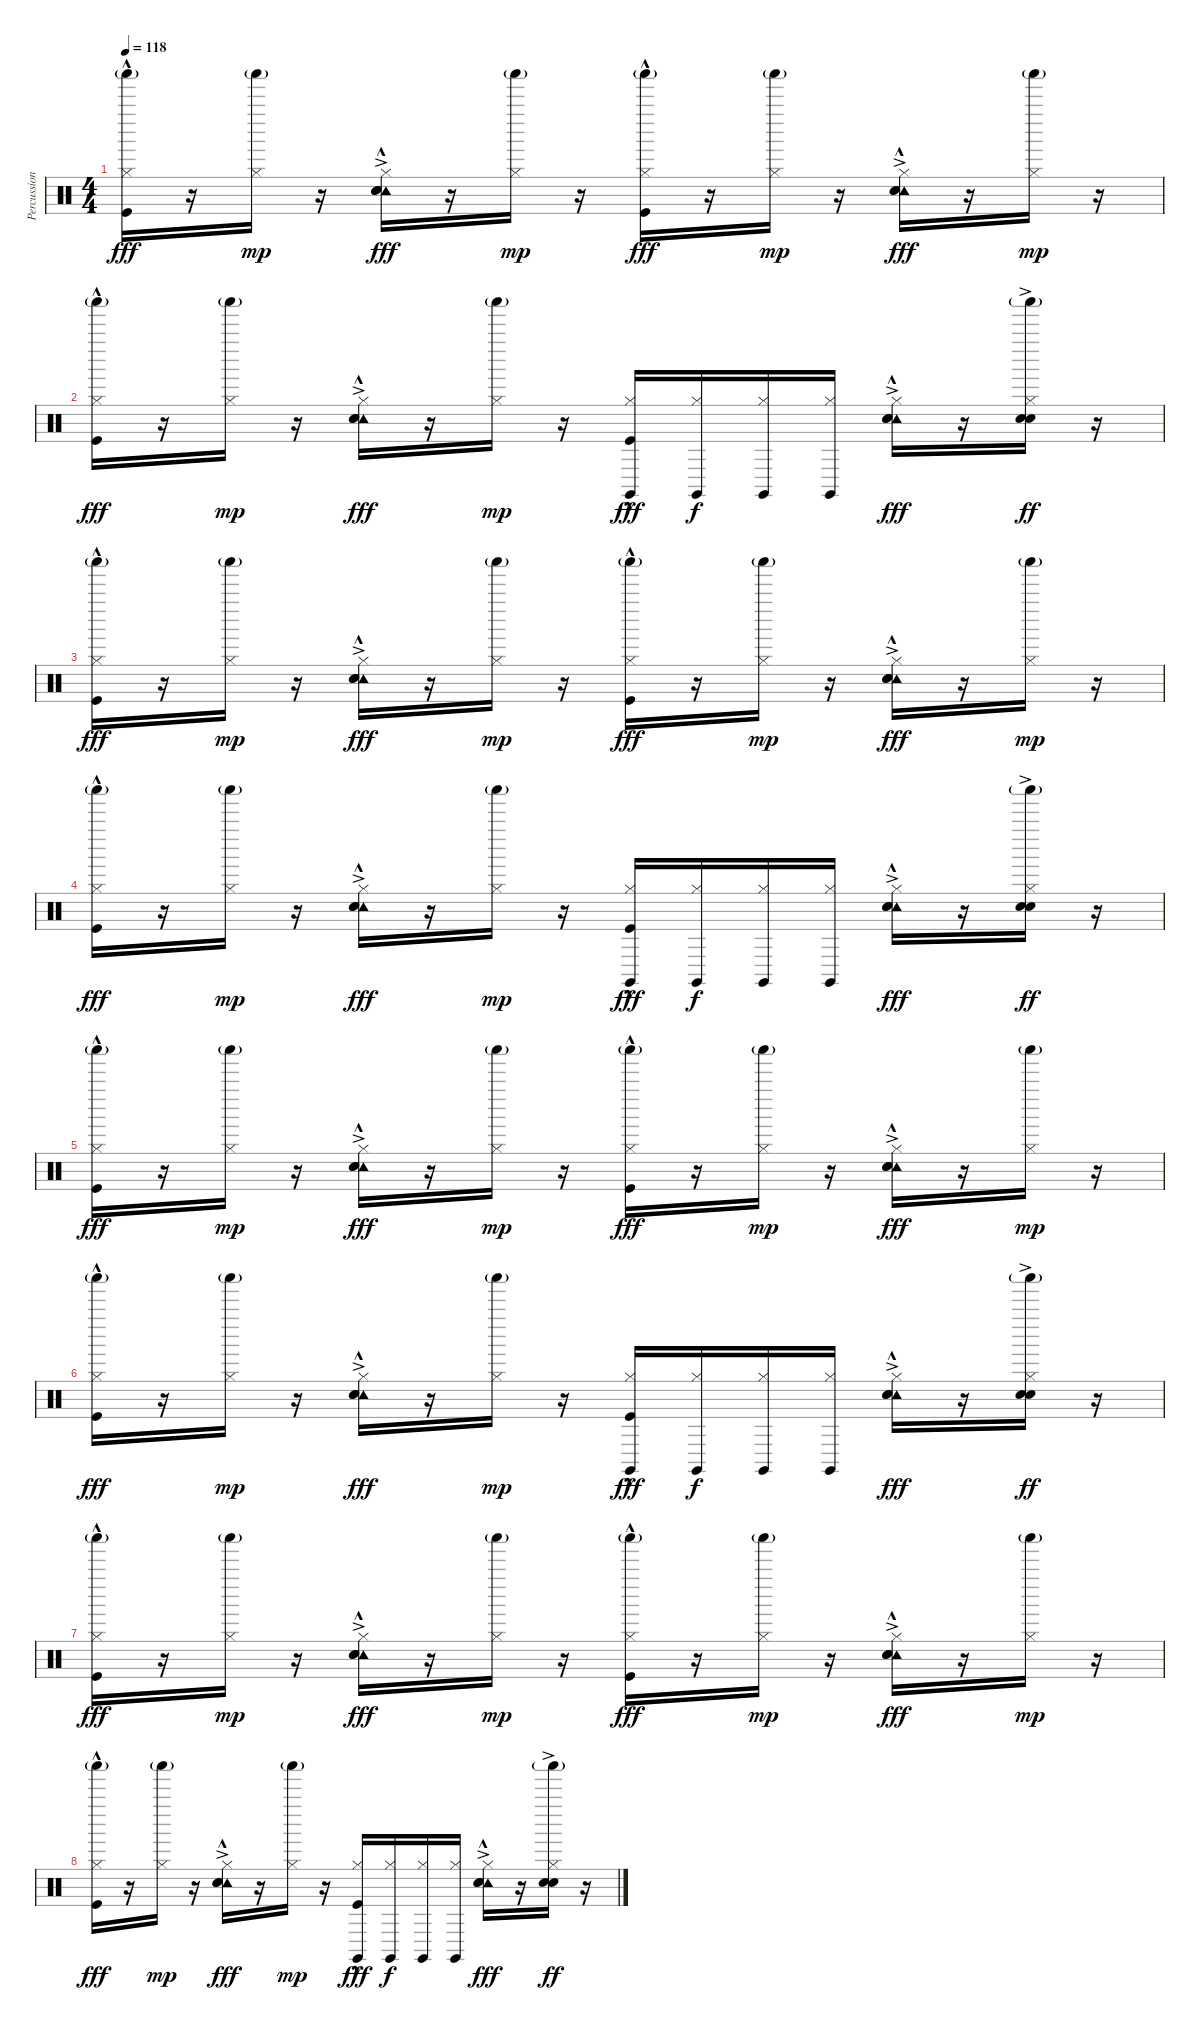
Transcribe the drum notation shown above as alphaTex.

\track ("Percussion" "Percussion") {instrument percussion}
\staff {score}
\articulation defaults
\ts (4 4)
\tempo 118
\clef neutral
\ks c
("Shaker (hit)"{g} "Hi-Hat (closed)" "Kick (hit)"{hac}).16{dy fff} r.16 ("Shaker (hit)"{g} "Hi-Hat (closed)").16{dy mp} r.16 ("Tambourine (hit)"{ac} "Hi-Hat (closed)" "Hand Clap (hit)" "Snare (hit) 2"{hac}).16{dy fff} r.16 ("Shaker (hit)"{g} "Hi-Hat (closed)").16{dy mp} r.16 ("Shaker (hit)"{g} "Hi-Hat (closed)" "Kick (hit)"{hac}).16{dy fff} r.16 ("Shaker (hit)"{g} "Hi-Hat (closed)").16{dy mp} r.16 ("Tambourine (hit)"{ac} "Hi-Hat (closed)" "Hand Clap (hit)" "Snare (hit) 2"{hac}).16{dy fff} r.16 ("Shaker (hit)"{g} "Hi-Hat (closed)").16{dy mp} r.16 |
("Shaker (hit)"{g} "Hi-Hat (closed)" "Kick (hit)"{hac}).16{dy fff} r.16 ("Shaker (hit)"{g} "Hi-Hat (closed)").16{dy mp} r.16 ("Tambourine (hit)"{ac} "Hi-Hat (closed)" "Hand Clap (hit)" "Snare (hit) 2"{hac}).16{dy fff} r.16 ("Shaker (hit)"{g} "Hi-Hat (closed)").16{dy mp} r.16 ("Claves (hit)" "Hi-Hat (closed)" "Kick (hit)"{hac}).16{dy fff} ("Claves (hit)" "Hi-Hat (closed)").16{dy f} ("Claves (hit)" "Hi-Hat (closed)").16 ("Claves (hit)" "Hi-Hat (closed)").16 ("Tambourine (hit)"{ac} "Hi-Hat (closed)" "Hand Clap (hit)"{ac} "Snare (hit) 2"{hac}).16{dy fff} r.16 ("Shaker (hit)"{g} "Hi-Hat (closed)" "Hand Clap (hit)"{ac} "Snare (hit) 2").16{dy ff} r.16 |
("Shaker (hit)"{g} "Hi-Hat (closed)" "Kick (hit)"{hac}).16{dy fff} r.16 ("Shaker (hit)"{g} "Hi-Hat (closed)").16{dy mp} r.16 ("Tambourine (hit)"{ac} "Hi-Hat (closed)" "Hand Clap (hit)" "Snare (hit) 2"{hac}).16{dy fff} r.16 ("Shaker (hit)"{g} "Hi-Hat (closed)").16{dy mp} r.16 ("Shaker (hit)"{g} "Hi-Hat (closed)" "Kick (hit)"{hac}).16{dy fff} r.16 ("Shaker (hit)"{g} "Hi-Hat (closed)").16{dy mp} r.16 ("Tambourine (hit)"{ac} "Hi-Hat (closed)" "Hand Clap (hit)" "Snare (hit) 2"{hac}).16{dy fff} r.16 ("Shaker (hit)"{g} "Hi-Hat (closed)").16{dy mp} r.16 |
("Shaker (hit)"{g} "Hi-Hat (closed)" "Kick (hit)"{hac}).16{dy fff} r.16 ("Shaker (hit)"{g} "Hi-Hat (closed)").16{dy mp} r.16 ("Tambourine (hit)"{ac} "Hi-Hat (closed)" "Hand Clap (hit)" "Snare (hit) 2"{hac}).16{dy fff} r.16 ("Shaker (hit)"{g} "Hi-Hat (closed)").16{dy mp} r.16 ("Claves (hit)" "Hi-Hat (closed)" "Kick (hit)"{hac}).16{dy fff} ("Claves (hit)" "Hi-Hat (closed)").16{dy f} ("Claves (hit)" "Hi-Hat (closed)").16 ("Claves (hit)" "Hi-Hat (closed)").16 ("Tambourine (hit)"{ac} "Hi-Hat (closed)" "Hand Clap (hit)"{ac} "Snare (hit) 2"{hac}).16{dy fff} r.16 ("Shaker (hit)"{g} "Hi-Hat (closed)" "Hand Clap (hit)"{ac} "Snare (hit) 2").16{dy ff} r.16 |
("Shaker (hit)"{g} "Hi-Hat (closed)" "Kick (hit)"{hac}).16{dy fff} r.16 ("Shaker (hit)"{g} "Hi-Hat (closed)").16{dy mp} r.16 ("Tambourine (hit)"{ac} "Hi-Hat (closed)" "Hand Clap (hit)" "Snare (hit) 2"{hac}).16{dy fff} r.16 ("Shaker (hit)"{g} "Hi-Hat (closed)").16{dy mp} r.16 ("Shaker (hit)"{g} "Hi-Hat (closed)" "Kick (hit)"{hac}).16{dy fff} r.16 ("Shaker (hit)"{g} "Hi-Hat (closed)").16{dy mp} r.16 ("Tambourine (hit)"{ac} "Hi-Hat (closed)" "Hand Clap (hit)" "Snare (hit) 2"{hac}).16{dy fff} r.16 ("Shaker (hit)"{g} "Hi-Hat (closed)").16{dy mp} r.16 |
("Shaker (hit)"{g} "Hi-Hat (closed)" "Kick (hit)"{hac}).16{dy fff} r.16 ("Shaker (hit)"{g} "Hi-Hat (closed)").16{dy mp} r.16 ("Tambourine (hit)"{ac} "Hi-Hat (closed)" "Hand Clap (hit)" "Snare (hit) 2"{hac}).16{dy fff} r.16 ("Shaker (hit)"{g} "Hi-Hat (closed)").16{dy mp} r.16 ("Claves (hit)" "Hi-Hat (closed)" "Kick (hit)"{hac}).16{dy fff} ("Claves (hit)" "Hi-Hat (closed)").16{dy f} ("Claves (hit)" "Hi-Hat (closed)").16 ("Claves (hit)" "Hi-Hat (closed)").16 ("Tambourine (hit)"{ac} "Hi-Hat (closed)" "Hand Clap (hit)"{ac} "Snare (hit) 2"{hac}).16{dy fff} r.16 ("Shaker (hit)"{g} "Hi-Hat (closed)" "Hand Clap (hit)"{ac} "Snare (hit) 2").16{dy ff} r.16 |
("Shaker (hit)"{g} "Hi-Hat (closed)" "Kick (hit)"{hac}).16{dy fff} r.16 ("Shaker (hit)"{g} "Hi-Hat (closed)").16{dy mp} r.16 ("Tambourine (hit)"{ac} "Hi-Hat (closed)" "Hand Clap (hit)" "Snare (hit) 2"{hac}).16{dy fff} r.16 ("Shaker (hit)"{g} "Hi-Hat (closed)").16{dy mp} r.16 ("Shaker (hit)"{g} "Hi-Hat (closed)" "Kick (hit)"{hac}).16{dy fff} r.16 ("Shaker (hit)"{g} "Hi-Hat (closed)").16{dy mp} r.16 ("Tambourine (hit)"{ac} "Hi-Hat (closed)" "Hand Clap (hit)" "Snare (hit) 2"{hac}).16{dy fff} r.16 ("Shaker (hit)"{g} "Hi-Hat (closed)").16{dy mp} r.16 |
("Shaker (hit)"{g} "Hi-Hat (closed)" "Kick (hit)"{hac}).16{dy fff} r.16 ("Shaker (hit)"{g} "Hi-Hat (closed)").16{dy mp} r.16 ("Tambourine (hit)"{ac} "Hi-Hat (closed)" "Hand Clap (hit)" "Snare (hit) 2"{hac}).16{dy fff} r.16 ("Shaker (hit)"{g} "Hi-Hat (closed)").16{dy mp} r.16 ("Claves (hit)" "Hi-Hat (closed)" "Kick (hit)"{hac}).16{dy fff} ("Claves (hit)" "Hi-Hat (closed)").16{dy f} ("Claves (hit)" "Hi-Hat (closed)").16 ("Claves (hit)" "Hi-Hat (closed)").16 ("Tambourine (hit)"{ac} "Hi-Hat (closed)" "Hand Clap (hit)"{ac} "Snare (hit) 2"{hac}).16{dy fff} r.16 ("Shaker (hit)"{g} "Hi-Hat (closed)" "Hand Clap (hit)"{ac} "Snare (hit) 2").16{dy ff} r.16
